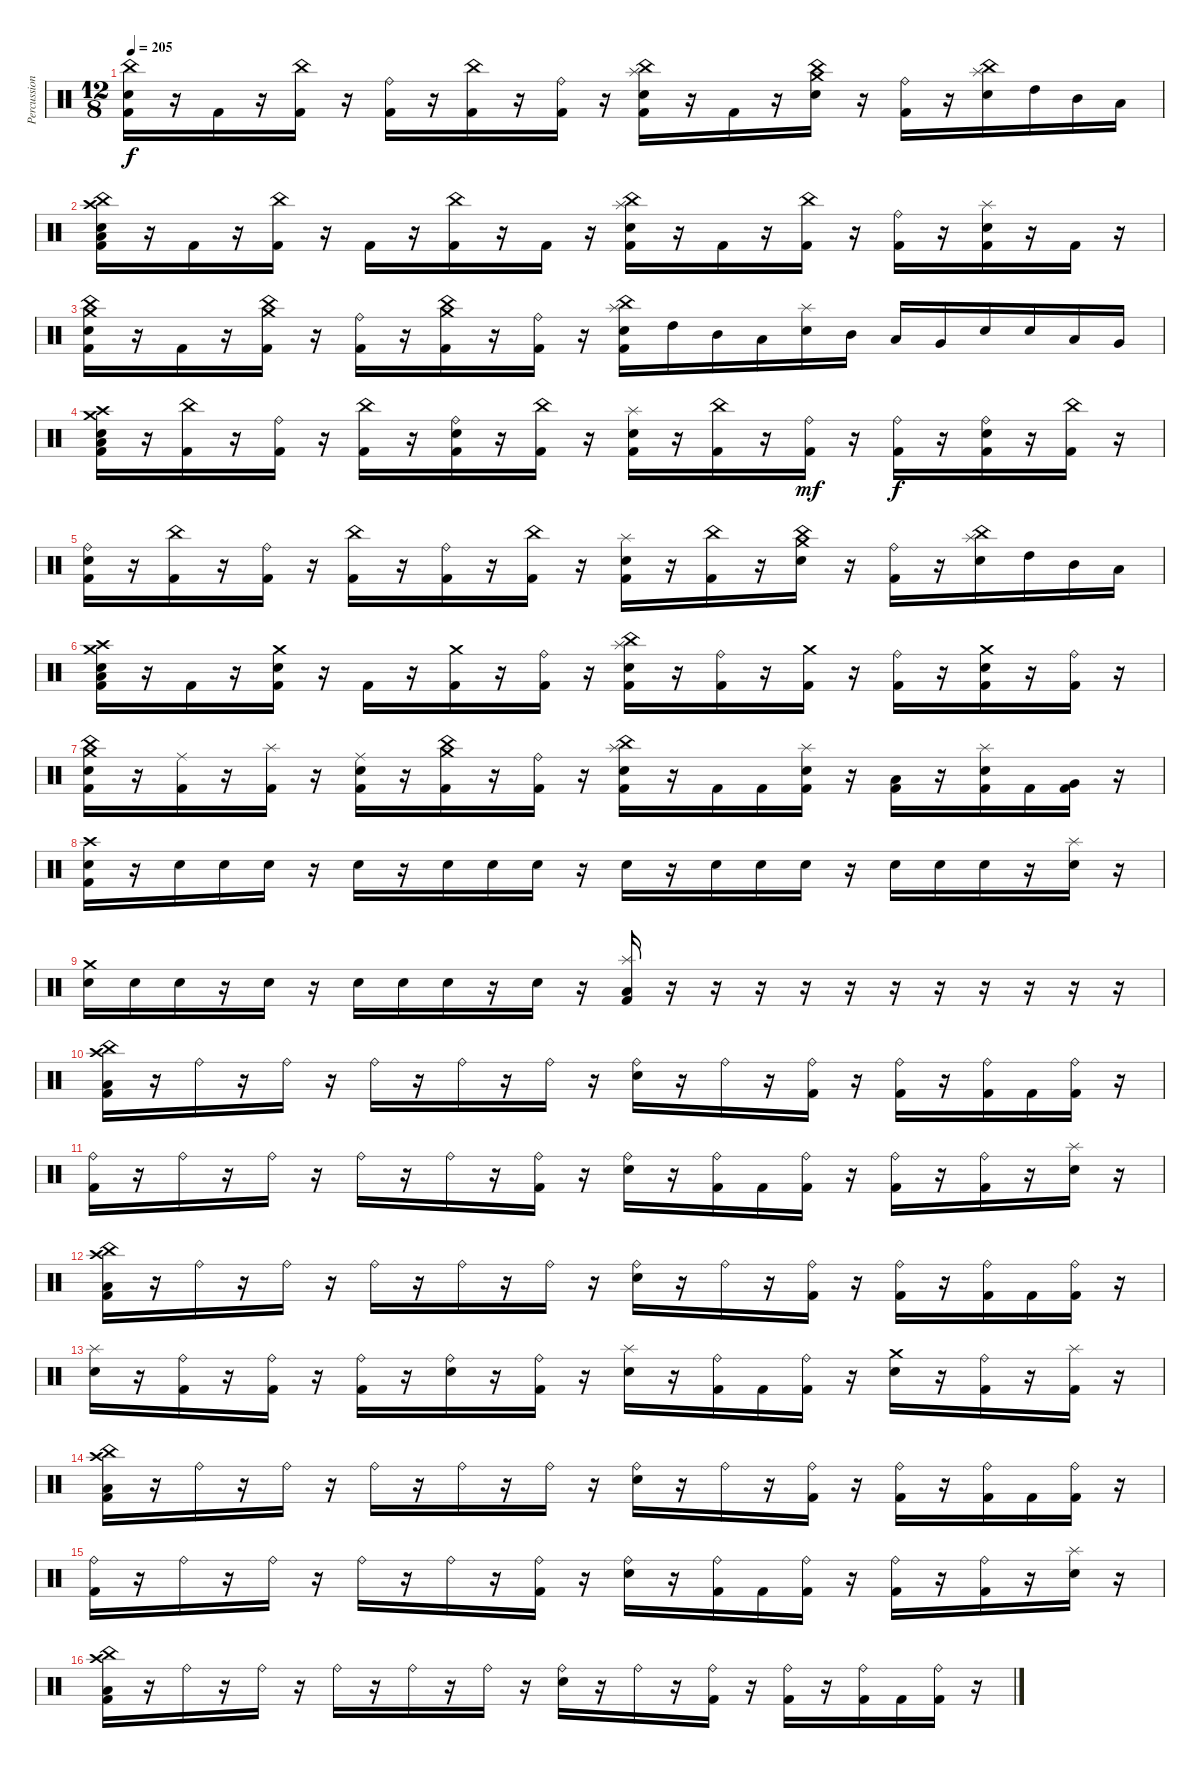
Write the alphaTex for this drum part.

\track ("Percussion" "Percussion") {instrument percussion}
\staff {score}
\articulation defaults
\ts (12 8)
\tempo 205
\clef neutral
\ks c
("China (hit)" "Electric Snare (hit)" "Kick (hit) 2").16{dy f} r.16 "Kick (hit) 2".16 r.16 ("China (hit)" "Kick (hit) 2").16 r.16 ("Ride (bell)" "Kick (hit) 2").16 r.16 ("China (hit)" "Kick (hit) 2").16 r.16 ("Ride (bell)" "Kick (hit) 2").16 r.16 ("China (hit)" "Splash (hit)" "Electric Snare (hit)" "Kick (hit) 2").16 r.16 "Kick (hit) 2".16 r.16 ("China (hit)" "Crash medium (hit)" "Electric Snare (hit)").16 r.16 ("Ride (bell)" "Kick (hit) 2").16 r.16 ("China (hit)" "Splash (hit)" "Electric Snare (hit)").16 "High Tom (hit)".16 "Mid Tom (hit)".16 "Low Tom (hit)".16 |
("Crash high (hit)" "China (hit)" "Electric Snare (hit)" "Low Floor Tom (hit)" "Kick (hit) 2").16 r.16 "Kick (hit) 2".16 r.16 ("China (hit)" "Kick (hit) 2").16 r.16 "Kick (hit) 2".16 r.16 ("China (hit)" "Kick (hit) 2").16 r.16 "Kick (hit) 2".16 r.16 ("China (hit)" "Splash (hit)" "Electric Snare (hit)" "Kick (hit) 2").16 r.16 "Kick (hit) 2".16 r.16 ("China (hit)" "Kick (hit) 2").16 r.16 ("Ride (bell)" "Kick (hit) 2").16 r.16 ("Splash (hit)" "Electric Snare (hit)" "Kick (hit) 2").16 r.16 "Kick (hit) 2".16 r.16 |
("China (hit)" "Crash medium (hit)" "Electric Snare (hit)" "Kick (hit) 2").16 r.16 "Kick (hit) 2".16 r.16 ("China (hit)" "Crash medium (hit)" "Kick (hit) 2").16 r.16 ("Ride (bell)" "Kick (hit) 2").16 r.16 ("China (hit)" "Crash medium (hit)" "Kick (hit) 2").16 r.16 ("Ride (bell)" "Kick (hit) 2").16 r.16 ("China (hit)" "Splash (hit)" "Electric Snare (hit)" "Kick (hit) 2").16 "High Tom (hit)".16 "Mid Tom (hit)".16 "Low Tom (hit)".16 ("Splash (hit)" "Electric Snare (hit)").16 "Mid Tom (hit)".16 "Low Tom (hit)".16 "Very Low Tom (hit)".16 "Electric Snare (hit)".16 "Electric Snare (hit)".16 "Low Tom (hit)".16 "Very Low Tom (hit)".16 |
("Crash high (hit)" "Crash medium (hit)" "Electric Snare (hit)" "Low Floor Tom (hit)" "Kick (hit) 2").16 r.16 ("China (hit)" "Kick (hit) 2").16 r.16 ("Ride (bell)" "Kick (hit) 2").16 r.16 ("China (hit)" "Kick (hit) 2").16 r.16 ("Ride (bell)" "Electric Snare (hit)" "Kick (hit) 2").16 r.16 ("China (hit)" "Kick (hit) 2").16 r.16 ("Splash (hit)" "Electric Snare (hit)" "Kick (hit) 2").16 r.16 ("China (hit)" "Kick (hit) 2").16 r.16 ("Ride (bell)" "Kick (hit) 2").16{dy mf} r.16 ("Ride (bell)" "Kick (hit) 2").16{dy f} r.16 ("Ride (bell)" "Electric Snare (hit)" "Kick (hit) 2").16 r.16 ("China (hit)" "Kick (hit) 2").16 r.16 |
("Ride (bell)" "Electric Snare (hit)" "Kick (hit) 2").16 r.16 ("China (hit)" "Kick (hit) 2").16 r.16 ("Ride (bell)" "Kick (hit) 2").16 r.16 ("China (hit)" "Kick (hit) 2").16 r.16 ("Ride (bell)" "Kick (hit) 2").16 r.16 ("China (hit)" "Kick (hit) 2").16 r.16 ("Splash (hit)" "Electric Snare (hit)" "Kick (hit) 2").16 r.16 ("China (hit)" "Kick (hit) 2").16 r.16 ("China (hit)" "Crash medium (hit)" "Electric Snare (hit)").16 r.16 ("Ride (bell)" "Kick (hit) 2").16 r.16 ("China (hit)" "Splash (hit)" "Electric Snare (hit)").16 "High Tom (hit)".16 "Mid Tom (hit)".16 "Low Tom (hit)".16 |
("Crash high (hit)" "Crash medium (hit)" "Electric Snare (hit)" "Low Floor Tom (hit)" "Kick (hit) 2").16 r.16 "Kick (hit) 2".16 r.16 ("Crash medium (hit)" "Electric Snare (hit)" "Kick (hit) 2").16 r.16 "Kick (hit) 2".16 r.16 ("Crash medium (hit)" "Kick (hit) 2").16 r.16 ("Ride (bell)" "Kick (hit) 2").16 r.16 ("China (hit)" "Splash (hit)" "Electric Snare (hit)" "Kick (hit) 2").16 r.16 ("Ride (bell)" "Kick (hit) 2").16 r.16 ("Crash medium (hit)" "Kick (hit) 2").16 r.16 ("Ride (bell)" "Kick (hit) 2").16 r.16 ("Crash medium (hit)" "Electric Snare (hit)" "Kick (hit) 2").16 r.16 ("Ride (bell)" "Kick (hit) 2").16 r.16 |
("China (hit)" "Crash medium (hit)" "Electric Snare (hit)" "Kick (hit) 2").16 r.16 ("Ride (middle)" "Kick (hit) 2").16 r.16 ("Splash (hit)" "Kick (hit) 2").16 r.16 ("Ride (middle)" "Electric Snare (hit)" "Kick (hit) 2").16 r.16 ("China (hit)" "Crash medium (hit)" "Kick (hit) 2").16 r.16 ("Ride (bell)" "Kick (hit) 2").16 r.16 ("China (hit)" "Splash (hit)" "Electric Snare (hit)" "Kick (hit) 2").16 r.16 "Kick (hit) 2".16 "Kick (hit) 2".16 ("Splash (hit)" "Electric Snare (hit)" "Kick (hit) 2").16 r.16 ("Low Tom (hit)" "Kick (hit) 2").16 r.16 ("Splash (hit)" "Electric Snare (hit)" "Kick (hit) 2").16 "Kick (hit) 2".16 ("Very Low Tom (hit)" "Kick (hit) 2").16 r.16 |
("Crash high (hit)" "Electric Snare (hit)" "Kick (hit) 2").16 r.16 "Electric Snare (hit)".16 "Electric Snare (hit)".16 "Electric Snare (hit)".16 r.16 "Electric Snare (hit)".16 r.16 "Electric Snare (hit)".16 "Electric Snare (hit)".16 "Electric Snare (hit)".16 r.16 "Electric Snare (hit)".16 r.16 "Electric Snare (hit)".16 "Electric Snare (hit)".16 "Electric Snare (hit)".16 r.16 "Electric Snare (hit)".16 "Electric Snare (hit)".16 "Electric Snare (hit)".16 r.16 ("Splash (hit)" "Electric Snare (hit)").16 r.16 |
("Crash medium (hit)" "Electric Snare (hit)").16 "Electric Snare (hit)".16 "Electric Snare (hit)".16 r.16 "Electric Snare (hit)".16 r.16 "Electric Snare (hit)".16 "Electric Snare (hit)".16 "Electric Snare (hit)".16 r.16 "Electric Snare (hit)".16 r.16 ("Splash (hit)" "Low Floor Tom (hit)" "Kick (hit) 2").16 r.16 r.16 r.16 r.16 r.16 r.16 r.16 r.16 r.16 r.16 r.16 |
("Crash high (hit)" "China (hit)" "Low Floor Tom (hit)" "Kick (hit) 2").16 r.16 "Ride (bell)".16 r.16 "Ride (bell)".16 r.16 "Ride (bell)".16 r.16 "Ride (bell)".16 r.16 "Ride (bell)".16 r.16 ("Ride (bell)" "Electric Snare (hit)").16 r.16 "Ride (bell)".16 r.16 ("Ride (bell)" "Kick (hit) 2").16 r.16 ("Ride (bell)" "Kick (hit) 2").16 r.16 ("Ride (bell)" "Kick (hit) 2").16 "Kick (hit) 2".16 ("Ride (bell)" "Kick (hit) 2").16 r.16 |
("Ride (bell)" "Kick (hit) 2").16 r.16 "Ride (bell)".16 r.16 "Ride (bell)".16 r.16 "Ride (bell)".16 r.16 "Ride (bell)".16 r.16 ("Ride (bell)" "Kick (hit) 2").16 r.16 ("Ride (bell)" "Electric Snare (hit)").16 r.16 ("Ride (bell)" "Kick (hit) 2").16 "Kick (hit) 2".16 ("Ride (bell)" "Kick (hit) 2").16 r.16 ("Ride (bell)" "Kick (hit) 2").16 r.16 ("Ride (bell)" "Kick (hit) 2").16 r.16 ("Splash (hit)" "Electric Snare (hit)").16 r.16 |
("Crash high (hit)" "China (hit)" "Low Floor Tom (hit)" "Kick (hit) 2").16 r.16 "Ride (bell)".16 r.16 "Ride (bell)".16 r.16 "Ride (bell)".16 r.16 "Ride (bell)".16 r.16 "Ride (bell)".16 r.16 ("Ride (bell)" "Electric Snare (hit)").16 r.16 "Ride (bell)".16 r.16 ("Ride (bell)" "Kick (hit) 2").16 r.16 ("Ride (bell)" "Kick (hit) 2").16 r.16 ("Ride (bell)" "Kick (hit) 2").16 "Kick (hit) 2".16 ("Ride (bell)" "Kick (hit) 2").16 r.16 |
("Splash (hit)" "Electric Snare (hit)").16 r.16 ("Ride (bell)" "Kick (hit) 2").16 r.16 ("Ride (bell)" "Kick (hit) 2").16 r.16 ("Ride (bell)" "Kick (hit) 2").16 r.16 ("Ride (bell)" "Electric Snare (hit)").16 r.16 ("Ride (bell)" "Kick (hit) 2").16 r.16 ("Splash (hit)" "Electric Snare (hit)").16 r.16 ("Ride (bell)" "Kick (hit) 2").16 "Kick (hit) 2".16 ("Ride (bell)" "Kick (hit) 2").16 r.16 ("Crash medium (hit)" "Electric Snare (hit)").16 r.16 ("Ride (bell)" "Kick (hit) 2").16 r.16 ("Splash (hit)" "Kick (hit) 2").16 r.16 |
("Crash high (hit)" "China (hit)" "Low Floor Tom (hit)" "Kick (hit) 2").16 r.16 "Ride (bell)".16 r.16 "Ride (bell)".16 r.16 "Ride (bell)".16 r.16 "Ride (bell)".16 r.16 "Ride (bell)".16 r.16 ("Ride (bell)" "Electric Snare (hit)").16 r.16 "Ride (bell)".16 r.16 ("Ride (bell)" "Kick (hit) 2").16 r.16 ("Ride (bell)" "Kick (hit) 2").16 r.16 ("Ride (bell)" "Kick (hit) 2").16 "Kick (hit) 2".16 ("Ride (bell)" "Kick (hit) 2").16 r.16 |
("Ride (bell)" "Kick (hit) 2").16 r.16 "Ride (bell)".16 r.16 "Ride (bell)".16 r.16 "Ride (bell)".16 r.16 "Ride (bell)".16 r.16 ("Ride (bell)" "Kick (hit) 2").16 r.16 ("Ride (bell)" "Electric Snare (hit)").16 r.16 ("Ride (bell)" "Kick (hit) 2").16 "Kick (hit) 2".16 ("Ride (bell)" "Kick (hit) 2").16 r.16 ("Ride (bell)" "Kick (hit) 2").16 r.16 ("Ride (bell)" "Kick (hit) 2").16 r.16 ("Splash (hit)" "Electric Snare (hit)").16 r.16 |
("Crash high (hit)" "China (hit)" "Low Floor Tom (hit)" "Kick (hit) 2").16 r.16 "Ride (bell)".16 r.16 "Ride (bell)".16 r.16 "Ride (bell)".16 r.16 "Ride (bell)".16 r.16 "Ride (bell)".16 r.16 ("Ride (bell)" "Electric Snare (hit)").16 r.16 "Ride (bell)".16 r.16 ("Ride (bell)" "Kick (hit) 2").16 r.16 ("Ride (bell)" "Kick (hit) 2").16 r.16 ("Ride (bell)" "Kick (hit) 2").16 "Kick (hit) 2".16 ("Ride (bell)" "Kick (hit) 2").16 r.16
